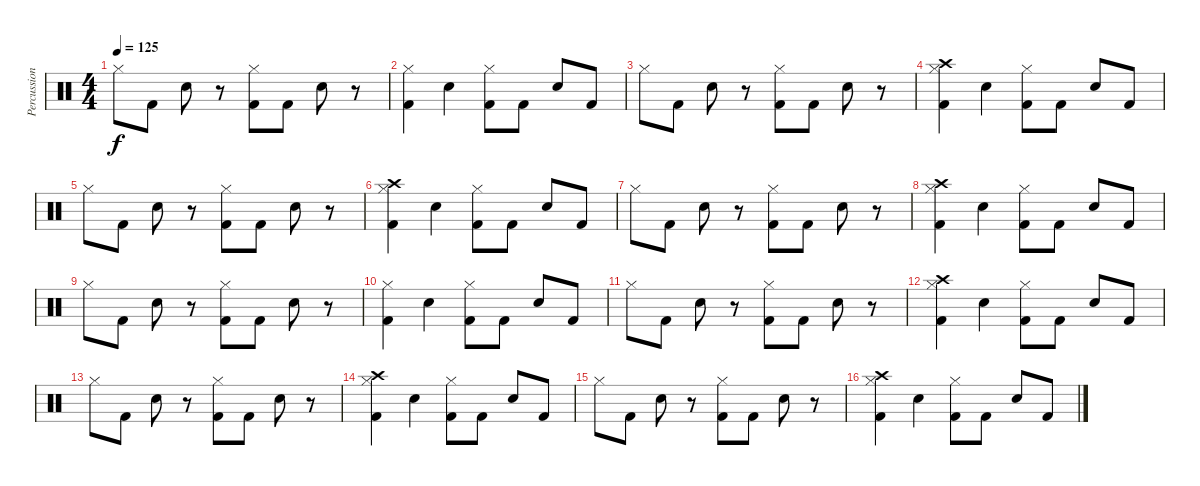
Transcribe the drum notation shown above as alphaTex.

\track ("Percussions" "Percussion") {instrument percussion}
\staff {score}
\articulation defaults
\ts (4 4)
\tempo 125
\clef neutral
\ks c "Hi-Hat (closed)".8{dy f} "Kick (hit) 2".8 "Snare (hit) 2".8
r.8 ("Hi-Hat (closed)" "Kick (hit) 2").8 "Kick (hit) 2".8 "Snare (hit) 2".8 r.8 |
("Hi-Hat (closed)" "Kick (hit) 2").4 "Snare (hit) 2".4 ("Hi-Hat (closed)" "Kick (hit) 2").8 "Kick (hit) 2".8 "Snare (hit) 2".8 "Kick (hit) 2".8 |
"Hi-Hat (closed)".8 "Kick (hit) 2".8 "Snare (hit) 2".8 r.8 ("Hi-Hat (closed)" "Kick (hit) 2").8 "Kick (hit) 2".8 "Snare (hit) 2".8 r.8 |
("Crash high (hit)" "Hi-Hat (closed)" "Kick (hit) 2").4 "Snare (hit) 2".4 ("Hi-Hat (closed)" "Kick (hit) 2").8 "Kick (hit) 2".8 "Snare (hit) 2".8 "Kick (hit) 2".8 |
"Hi-Hat (closed)".8 "Kick (hit) 2".8 "Snare (hit) 2".8 r.8 ("Hi-Hat (closed)" "Kick (hit) 2").8 "Kick (hit) 2".8 "Snare (hit) 2".8 r.8 |
("Crash high (hit)" "Hi-Hat (closed)" "Kick (hit) 2").4 "Snare (hit) 2".4 ("Hi-Hat (closed)" "Kick (hit) 2").8 "Kick (hit) 2".8 "Snare (hit) 2".8 "Kick (hit) 2".8 |
"Hi-Hat (closed)".8 "Kick (hit) 2".8 "Snare (hit) 2".8 r.8 ("Hi-Hat (closed)" "Kick (hit) 2").8 "Kick (hit) 2".8 "Snare (hit) 2".8 r.8 |
("Crash high (hit)" "Hi-Hat (closed)" "Kick (hit) 2").4 "Snare (hit) 2".4 ("Hi-Hat (closed)" "Kick (hit) 2").8 "Kick (hit) 2".8 "Snare (hit) 2".8 "Kick (hit) 2".8 |
"Hi-Hat (closed)".8 "Kick (hit) 2".8 "Snare (hit) 2".8 r.8 ("Hi-Hat (closed)" "Kick (hit) 2").8 "Kick (hit) 2".8 "Snare (hit) 2".8 r.8 |
("Hi-Hat (closed)" "Kick (hit) 2").4 "Snare (hit) 2".4 ("Hi-Hat (closed)" "Kick (hit) 2").8 "Kick (hit) 2".8 "Snare (hit) 2".8 "Kick (hit) 2".8 |
"Hi-Hat (closed)".8 "Kick (hit) 2".8 "Snare (hit) 2".8 r.8 ("Hi-Hat (closed)" "Kick (hit) 2").8 "Kick (hit) 2".8 "Snare (hit) 2".8 r.8 |
("Crash high (hit)" "Hi-Hat (closed)" "Kick (hit) 2").4{volume 8} "Snare (hit) 2".4 ("Hi-Hat (closed)" "Kick (hit) 2").8 "Kick (hit) 2".8 "Snare (hit) 2".8 "Kick (hit) 2".8 |
"Hi-Hat (closed)".8 "Kick (hit) 2".8 "Snare (hit) 2".8 r.8 ("Hi-Hat (closed)" "Kick (hit) 2").8 "Kick (hit) 2".8 "Snare (hit) 2".8 r.8 |
("Crash high (hit)" "Hi-Hat (closed)" "Kick (hit) 2").4{volume 7} "Snare (hit) 2".4 ("Hi-Hat (closed)" "Kick (hit) 2").8 "Kick (hit) 2".8 "Snare (hit) 2".8 "Kick (hit) 2".8 |
"Hi-Hat (closed)".8 "Kick (hit) 2".8 "Snare (hit) 2".8 r.8 ("Hi-Hat (closed)" "Kick (hit) 2").8 "Kick (hit) 2".8 "Snare (hit) 2".8 r.8 |
("Crash high (hit)" "Hi-Hat (closed)" "Kick (hit) 2").4{volume 6} "Snare (hit) 2".4 ("Hi-Hat (closed)" "Kick (hit) 2").8 "Kick (hit) 2".8 "Snare (hit) 2".8 "Kick (hit) 2".8
